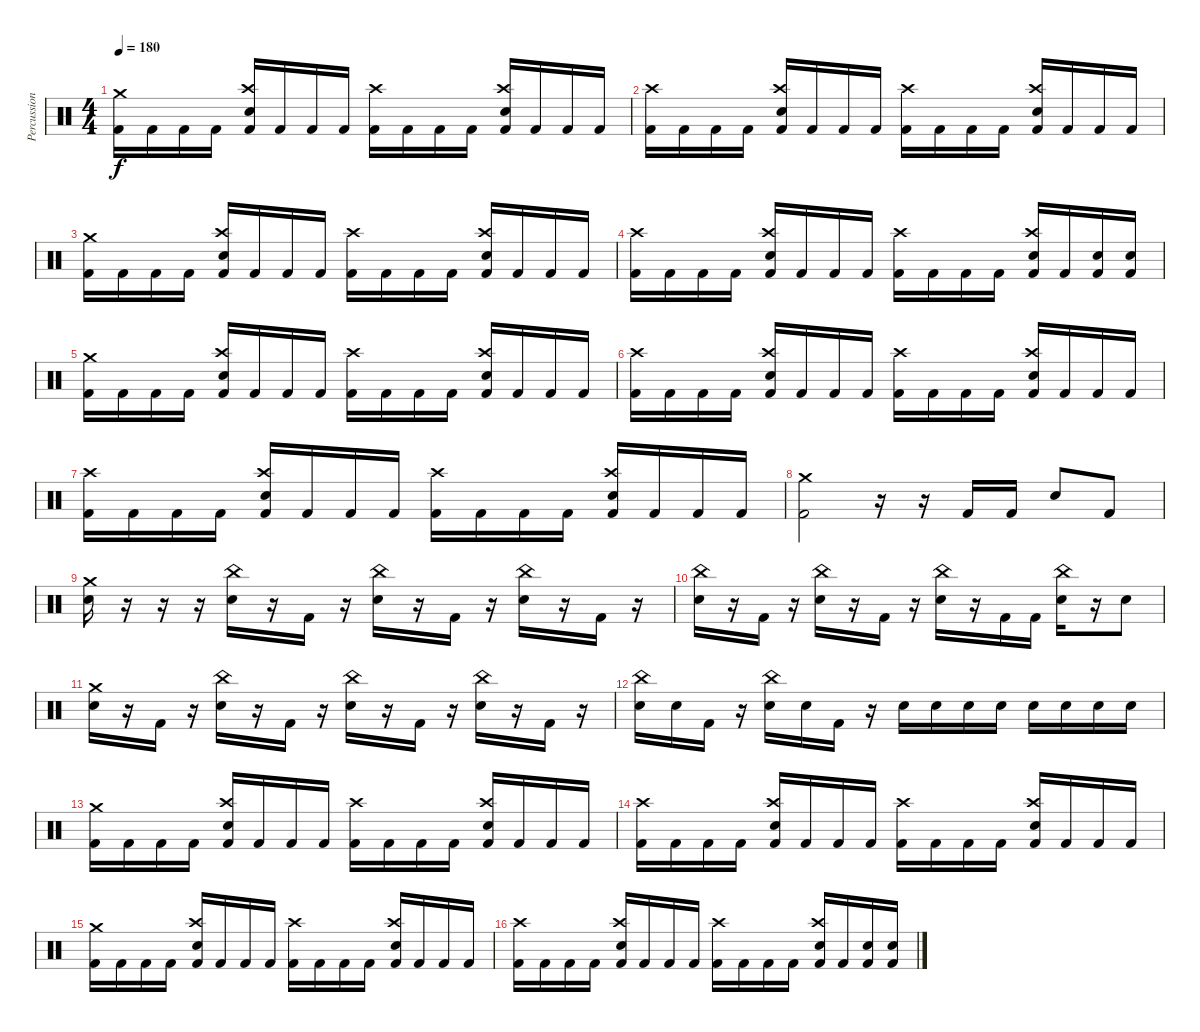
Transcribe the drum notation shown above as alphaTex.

\track ("Percussions" "Percussion") {instrument percussion}
\staff {score}
\articulation defaults
\ts (4 4)
\tempo 180
\clef neutral
\ks c
("Crash medium (hit)" "Kick (hit) 2").16{dy f} "Kick (hit) 2".16 "Kick (hit) 2".16 "Kick (hit) 2".16 ("Crash high (hit)" "Snare (hit) 2" "Kick (hit) 2").16 "Kick (hit) 2".16 "Kick (hit) 2".16 "Kick (hit) 2".16 ("Crash high (hit)" "Kick (hit) 2").16 "Kick (hit) 2".16 "Kick (hit) 2".16 "Kick (hit) 2".16 ("Crash high (hit)" "Snare (hit) 2" "Kick (hit) 2").16 "Kick (hit) 2".16 "Kick (hit) 2".16 "Kick (hit) 2".16 |
("Crash high (hit)" "Kick (hit) 2").16 "Kick (hit) 2".16 "Kick (hit) 2".16 "Kick (hit) 2".16 ("Crash high (hit)" "Snare (hit) 2" "Kick (hit) 2").16 "Kick (hit) 2".16 "Kick (hit) 2".16 "Kick (hit) 2".16 ("Crash high (hit)" "Kick (hit) 2").16 "Kick (hit) 2".16 "Kick (hit) 2".16 "Kick (hit) 2".16 ("Crash high (hit)" "Snare (hit) 2" "Kick (hit) 2").16 "Kick (hit) 2".16 "Kick (hit) 2".16 "Kick (hit) 2".16 |
("Crash medium (hit)" "Kick (hit) 2").16 "Kick (hit) 2".16 "Kick (hit) 2".16 "Kick (hit) 2".16 ("Crash high (hit)" "Snare (hit) 2" "Kick (hit) 2").16 "Kick (hit) 2".16 "Kick (hit) 2".16 "Kick (hit) 2".16 ("Crash high (hit)" "Kick (hit) 2").16 "Kick (hit) 2".16 "Kick (hit) 2".16 "Kick (hit) 2".16 ("Crash high (hit)" "Snare (hit) 2" "Kick (hit) 2").16 "Kick (hit) 2".16 "Kick (hit) 2".16 "Kick (hit) 2".16 |
("Crash high (hit)" "Kick (hit) 2").16 "Kick (hit) 2".16 "Kick (hit) 2".16 "Kick (hit) 2".16 ("Crash high (hit)" "Snare (hit) 2" "Kick (hit) 2").16 "Kick (hit) 2".16 "Kick (hit) 2".16 "Kick (hit) 2".16 ("Crash high (hit)" "Kick (hit) 2").16 "Kick (hit) 2".16 "Kick (hit) 2".16 "Kick (hit) 2".16 ("Crash high (hit)" "Snare (hit) 2" "Kick (hit) 2").16 "Kick (hit) 2".16 ("Snare (hit) 2" "Kick (hit) 2").16 ("Snare (hit) 2" "Kick (hit) 2").16 |
("Crash medium (hit)" "Kick (hit) 2").16 "Kick (hit) 2".16 "Kick (hit) 2".16 "Kick (hit) 2".16 ("Crash high (hit)" "Snare (hit) 2" "Kick (hit) 2").16 "Kick (hit) 2".16 "Kick (hit) 2".16 "Kick (hit) 2".16 ("Crash high (hit)" "Kick (hit) 2").16 "Kick (hit) 2".16 "Kick (hit) 2".16 "Kick (hit) 2".16 ("Crash high (hit)" "Snare (hit) 2" "Kick (hit) 2").16 "Kick (hit) 2".16 "Kick (hit) 2".16 "Kick (hit) 2".16 |
("Crash high (hit)" "Kick (hit) 2").16 "Kick (hit) 2".16 "Kick (hit) 2".16 "Kick (hit) 2".16 ("Crash high (hit)" "Snare (hit) 2" "Kick (hit) 2").16 "Kick (hit) 2".16 "Kick (hit) 2".16 "Kick (hit) 2".16 ("Crash high (hit)" "Kick (hit) 2").16 "Kick (hit) 2".16 "Kick (hit) 2".16 "Kick (hit) 2".16 ("Crash high (hit)" "Snare (hit) 2" "Kick (hit) 2").16 "Kick (hit) 2".16 "Kick (hit) 2".16 "Kick (hit) 2".16 |
("Crash high (hit)" "Kick (hit) 2").16 "Kick (hit) 2".16 "Kick (hit) 2".16 "Kick (hit) 2".16 ("Crash high (hit)" "Snare (hit) 2" "Kick (hit) 2").16 "Kick (hit) 2".16 "Kick (hit) 2".16 "Kick (hit) 2".16 ("Crash high (hit)" "Kick (hit) 2").16 "Kick (hit) 2".16 "Kick (hit) 2".16 "Kick (hit) 2".16 ("Crash high (hit)" "Snare (hit) 2" "Kick (hit) 2").16 "Kick (hit) 2".16 "Kick (hit) 2".16 "Kick (hit) 2".16 |
("Crash medium (hit)" "Kick (hit) 2").2 r.16 r.16 "Kick (hit) 2".16 "Kick (hit) 2".16 "Snare (hit) 2".8 "Kick (hit) 2".8 |
("Crash medium (hit)" "Snare (hit) 2").16 r.16 r.16 r.16 ("China (hit)" "Snare (hit) 2").16 r.16 "Kick (hit) 2".16 r.16 ("China (hit)" "Snare (hit) 2").16 r.16 "Kick (hit) 2".16 r.16 ("China (hit)" "Snare (hit) 2").16 r.16 "Kick (hit) 2".16 r.16 |
("China (hit)" "Snare (hit) 2").16 r.16 "Kick (hit) 2".16 r.16 ("China (hit)" "Snare (hit) 2").16 r.16 "Kick (hit) 2".16 r.16 ("China (hit)" "Snare (hit) 2").16 r.16 "Kick (hit) 2".16 "Kick (hit) 2".16 ("China (hit)" "Snare (hit) 2").16 r.16 "Snare (hit) 2".8 |
("Crash medium (hit)" "Snare (hit) 2").16 r.16 "Kick (hit) 2".16 r.16 ("China (hit)" "Snare (hit) 2").16 r.16 "Kick (hit) 2".16 r.16 ("China (hit)" "Snare (hit) 2").16 r.16 "Kick (hit) 2".16 r.16 ("China (hit)" "Snare (hit) 2").16 r.16 "Kick (hit) 2".16 r.16 |
("China (hit)" "Snare (hit) 2").16 "Snare (hit) 2".16 "Kick (hit) 2".16 r.16 ("China (hit)" "Snare (hit) 2").16 "Snare (hit) 2".16 "Kick (hit) 2".16 r.16 "Snare (hit) 2".16 "Snare (hit) 2".16 "Snare (hit) 2".16 "Snare (hit) 2".16 "Snare (hit) 2".16 "Snare (hit) 2".16 "Snare (hit) 2".16 "Snare (hit) 2".16 |
("Crash medium (hit)" "Kick (hit) 2").16 "Kick (hit) 2".16 "Kick (hit) 2".16 "Kick (hit) 2".16 ("Crash high (hit)" "Snare (hit) 2" "Kick (hit) 2").16 "Kick (hit) 2".16 "Kick (hit) 2".16 "Kick (hit) 2".16 ("Crash high (hit)" "Kick (hit) 2").16 "Kick (hit) 2".16 "Kick (hit) 2".16 "Kick (hit) 2".16 ("Crash high (hit)" "Snare (hit) 2" "Kick (hit) 2").16 "Kick (hit) 2".16 "Kick (hit) 2".16 "Kick (hit) 2".16 |
("Crash high (hit)" "Kick (hit) 2").16 "Kick (hit) 2".16 "Kick (hit) 2".16 "Kick (hit) 2".16 ("Crash high (hit)" "Snare (hit) 2" "Kick (hit) 2").16 "Kick (hit) 2".16 "Kick (hit) 2".16 "Kick (hit) 2".16 ("Crash high (hit)" "Kick (hit) 2").16 "Kick (hit) 2".16 "Kick (hit) 2".16 "Kick (hit) 2".16 ("Crash high (hit)" "Snare (hit) 2" "Kick (hit) 2").16 "Kick (hit) 2".16 "Kick (hit) 2".16 "Kick (hit) 2".16 |
("Crash medium (hit)" "Kick (hit) 2").16 "Kick (hit) 2".16 "Kick (hit) 2".16 "Kick (hit) 2".16 ("Crash high (hit)" "Snare (hit) 2" "Kick (hit) 2").16 "Kick (hit) 2".16 "Kick (hit) 2".16 "Kick (hit) 2".16 ("Crash high (hit)" "Kick (hit) 2").16 "Kick (hit) 2".16 "Kick (hit) 2".16 "Kick (hit) 2".16 ("Crash high (hit)" "Snare (hit) 2" "Kick (hit) 2").16 "Kick (hit) 2".16 "Kick (hit) 2".16 "Kick (hit) 2".16 |
("Crash high (hit)" "Kick (hit) 2").16 "Kick (hit) 2".16 "Kick (hit) 2".16 "Kick (hit) 2".16 ("Crash high (hit)" "Snare (hit) 2" "Kick (hit) 2").16 "Kick (hit) 2".16 "Kick (hit) 2".16 "Kick (hit) 2".16 ("Crash high (hit)" "Kick (hit) 2").16 "Kick (hit) 2".16 "Kick (hit) 2".16 "Kick (hit) 2".16 ("Crash high (hit)" "Snare (hit) 2" "Kick (hit) 2").16 "Kick (hit) 2".16 ("Snare (hit) 2" "Kick (hit) 2").16 ("Snare (hit) 2" "Kick (hit) 2").16
